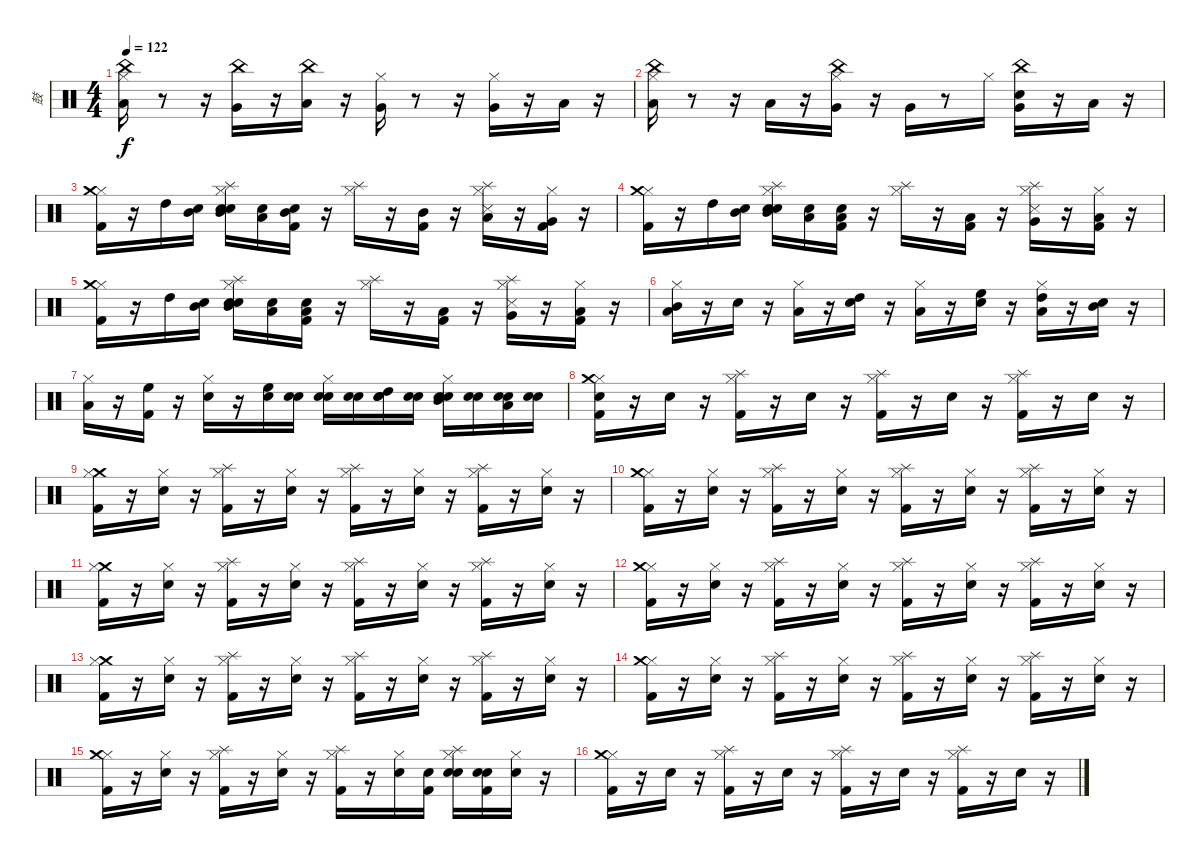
\track ("鼓" "鼓") {instrument percussion}
\staff {score}
\articulation defaults
\ts (4 4)
\tempo 122
\clef neutral
\ks c
("Low Tom (hit)" "Hi-Hat (closed)" "China (hit)").16{dy f} r.8 r.16 ("China (hit)" "Very Low Tom (hit)").16 r.16 ("Low Floor Tom (hit)" "China (hit)").16 r.16 ("Hi-Hat (closed)" "Very Low Tom (hit)").16 r.8 r.16 ("Very Low Tom (hit)" "Hi-Hat (closed)").16 r.16 "Low Floor Tom (hit)".16 r.16 |
("Low Tom (hit)" "China (hit)" "Hi-Hat (closed)").16 r.8 r.16 "Low Tom (hit)".16 r.16 ("Hi-Hat (closed)" "Very Low Tom (hit)" "China (hit)").16 r.16 "Very Low Tom (hit)".16 r.8 "Hi-Hat (closed)".16 ("Snare (hit)" "Very Low Tom (hit)" "China (hit)").16 r.16 "Low Floor Tom (hit)".16 r.16 |
("Kick (hit) 2" "Hi-Hat (closed)" "Crash medium (hit)").16 r.16 "High Tom (hit)".16 ("Snare (hit)" "Mid Tom (hit)").16 ("Snare (hit)" "Splash (hit)" "Snare (hit) 2" "Hi-Hat (closed)" "Mid Tom (hit)").16 ("Snare (hit)" "Low Tom (hit)").16 ("Snare (hit)" "Kick (hit) 2" "Mid Tom (hit)").16 r.16 ("Hi-Hat (closed)" "Splash (hit)").16 r.16 ("Kick (hit) 2" "Mid Tom (hit)").16 r.16 ("Hi-Hat (closed)" "Low Tom (hit)" "Snare (side stick) 3" "Splash (hit)").16 r.16 ("Kick (hit) 2" "Very Low Tom (hit)" "Hi-Hat (closed)").16 r.16 |
("Hi-Hat (closed)" "Kick (hit) 2" "Crash medium (hit)").16 r.16 "High Tom (hit)".16 ("Snare (hit)" "Mid Tom (hit)").16 ("Snare (hit)" "Snare (hit) 2" "Hi-Hat (closed)" "Mid Tom (hit)" "Splash (hit)").16 ("Snare (hit)" "Low Tom (hit)").16 ("Snare (hit)" "Low Tom (hit)" "Kick (hit) 2").16 r.16 ("Hi-Hat (closed)" "Splash (hit)").16 r.16 ("Kick (hit) 2" "Low Tom (hit)").16 r.16 ("Hi-Hat (closed)" "Very Low Tom (hit)" "Snare (side stick) 3" "Splash (hit)").16 r.16 ("Kick (hit) 2" "Low Floor Tom (hit)" "Hi-Hat (closed)").16 r.16 |
("Hi-Hat (closed)" "Kick (hit) 2" "Crash medium (hit)").16 r.16 "High Tom (hit)".16 ("Snare (hit)" "Mid Tom (hit)").16 ("Snare (hit)" "Snare (hit) 2" "Hi-Hat (closed)" "Mid Tom (hit)" "Splash (hit)").16 ("Snare (hit)" "Low Tom (hit)").16 ("Snare (hit)" "Low Tom (hit)" "Kick (hit) 2").16 r.16 ("Hi-Hat (closed)" "Splash (hit)").16 r.16 ("Kick (hit) 2" "Low Tom (hit)").16 r.16 ("Hi-Hat (closed)" "Very Low Tom (hit)" "Snare (side stick) 3" "Splash (hit)").16 r.16 ("Kick (hit) 2" "Low Floor Tom (hit)" "Hi-Hat (closed)").16 r.16 |
("Low Floor Tom (hit)" "Hi-Hat (closed)" "Mid Tom (hit)").16 r.16 "Snare (hit) 2".16 r.16 ("Hi-Hat (closed)" "Low Floor Tom (hit)").16 r.16 ("Snare (hit) 2" "High Tom (hit)").16 r.16 ("Hi-Hat (closed)" "Low Floor Tom (hit)").16 r.16 ("Snare (hit) 2" "High Floor Tom (hit)").16 r.16 ("High Tom (hit)" "Low Floor Tom (hit)" "Hi-Hat (closed)").16 r.16 ("Mid Tom (hit)" "Snare (hit) 2").16 r.16 |
("Hi-Hat (closed)" "Low Floor Tom (hit)").16 r.16 ("Kick (hit) 2" "High Floor Tom (hit)").16 r.16 ("Hi-Hat (closed)" "Snare (hit) 2").16 r.16 ("High Floor Tom (hit)" "Snare (hit) 2").16 ("Snare (hit)" "Snare (hit) 2").16 ("Snare (hit)" "Hi-Hat (closed)" "Snare (hit) 2").16 ("Snare (hit)" "Snare (hit) 2").16 ("Snare (hit)" "High Tom (hit)" "Snare (hit) 2").16 ("Snare (hit)" "Snare (hit) 2").16 ("Snare (hit)" "Hi-Hat (closed)" "Snare (hit) 2" "Mid Tom (hit)").16 ("Snare (hit)" "Snare (hit) 2").16 ("Snare (hit)" "Snare (hit) 2" "Low Tom (hit)").16 ("Snare (hit)" "Snare (hit) 2").16 |
("Snare (hit)" "Kick (hit) 2" "Hi-Hat (closed)" "Crash medium (hit)").16 r.16 "Snare (hit) 2".16 r.16 ("Kick (hit) 2" "Hi-Hat (closed)" "Splash (hit)").16 r.16 "Snare (hit) 2".16 r.16 ("Kick (hit) 2" "Splash (hit)" "Hi-Hat (closed)").16 r.16 "Snare (hit) 2".16 r.16 ("Kick (hit) 2" "Hi-Hat (closed)" "Splash (hit)").16 r.16 "Snare (hit) 2".16 r.16 |
("Crash medium (hit)" "Kick (hit) 2" "Hi-Hat (closed)").16 r.16 ("Snare (hit) 2" "Hi-Hat (closed)").16 r.16 ("Kick (hit) 2" "Hi-Hat (closed)" "Splash (hit)").16 r.16 ("Snare (hit) 2" "Hi-Hat (closed)").16 r.16 ("Kick (hit) 2" "Hi-Hat (closed)" "Splash (hit)").16 r.16 ("Snare (hit) 2" "Hi-Hat (closed)").16 r.16 ("Kick (hit) 2" "Hi-Hat (closed)" "Splash (hit)").16 r.16 ("Snare (hit) 2" "Hi-Hat (closed)").16 r.16 |
("Kick (hit) 2" "Hi-Hat (closed)" "Crash medium (hit)").16 r.16 ("Snare (hit) 2" "Hi-Hat (closed)").16 r.16 ("Kick (hit) 2" "Hi-Hat (closed)" "Splash (hit)").16 r.16 ("Snare (hit) 2" "Hi-Hat (closed)").16 r.16 ("Kick (hit) 2" "Hi-Hat (closed)" "Splash (hit)").16 r.16 ("Snare (hit) 2" "Hi-Hat (closed)").16 r.16 ("Kick (hit) 2" "Splash (hit)" "Hi-Hat (closed)").16 r.16 ("Snare (hit) 2" "Hi-Hat (closed)").16 r.16 |
("Kick (hit) 2" "Crash medium (hit)" "Hi-Hat (closed)").16 r.16 ("Snare (hit) 2" "Hi-Hat (closed)").16 r.16 ("Kick (hit) 2" "Hi-Hat (closed)" "Splash (hit)").16 r.16 ("Snare (hit) 2" "Hi-Hat (closed)").16 r.16 ("Kick (hit) 2" "Hi-Hat (closed)" "Splash (hit)").16 r.16 ("Snare (hit) 2" "Hi-Hat (closed)").16 r.16 ("Kick (hit) 2" "Hi-Hat (closed)" "Splash (hit)").16 r.16 ("Hi-Hat (closed)" "Snare (hit) 2").16 r.16 |
("Kick (hit) 2" "Hi-Hat (closed)" "Crash medium (hit)").16 r.16 ("Snare (hit) 2" "Hi-Hat (closed)").16 r.16 ("Kick (hit) 2" "Hi-Hat (closed)" "Splash (hit)").16 r.16 ("Snare (hit) 2" "Hi-Hat (closed)").16 r.16 ("Kick (hit) 2" "Hi-Hat (closed)" "Splash (hit)").16 r.16 ("Snare (hit) 2" "Hi-Hat (closed)").16 r.16 ("Kick (hit) 2" "Splash (hit)" "Hi-Hat (closed)").16 r.16 ("Snare (hit) 2" "Hi-Hat (closed)").16 r.16 |
("Kick (hit) 2" "Crash medium (hit)" "Hi-Hat (closed)").16 r.16 ("Snare (hit) 2" "Hi-Hat (closed)").16 r.16 ("Kick (hit) 2" "Splash (hit)" "Hi-Hat (closed)").16 r.16 ("Snare (hit) 2" "Hi-Hat (closed)").16 r.16 ("Hi-Hat (closed)" "Kick (hit) 2" "Splash (hit)").16 r.16 ("Snare (hit) 2" "Hi-Hat (closed)").16 r.16 ("Splash (hit)" "Kick (hit) 2" "Hi-Hat (closed)").16 r.16 ("Snare (hit) 2" "Hi-Hat (closed)").16 r.16 |
("Kick (hit) 2" "Hi-Hat (closed)" "Crash medium (hit)").16 r.16 ("Snare (hit) 2" "Hi-Hat (closed)").16 r.16 ("Splash (hit)" "Kick (hit) 2" "Hi-Hat (closed)").16 r.16 ("Snare (hit) 2" "Hi-Hat (closed)").16 r.16 ("Kick (hit) 2" "Hi-Hat (closed)" "Splash (hit)").16 r.16 ("Snare (hit) 2" "Hi-Hat (closed)").16 r.16 ("Hi-Hat (closed)" "Splash (hit)" "Kick (hit) 2").16 r.16 ("Hi-Hat (closed)" "Snare (hit) 2").16 r.16 |
("Kick (hit) 2" "Hi-Hat (closed)" "Crash medium (hit)").16 r.16 ("Hi-Hat (closed)" "Snare (hit) 2").16 r.16 ("Splash (hit)" "Hi-Hat (closed)" "Kick (hit) 2").16 r.16 ("Snare (hit) 2" "Hi-Hat (closed)").16 r.16 ("Hi-Hat (closed)" "Kick (hit) 2" "Splash (hit)").16 r.16 ("Snare (hit) 2" "Hi-Hat (closed)").16 ("Snare (hit)" "Kick (hit) 2").16 ("Snare (hit)" "Splash (hit)" "Hi-Hat (closed)" "Snare (hit) 2").16 ("Snare (hit)" "Kick (hit) 2" "Snare (hit) 2").16 ("Snare (hit)" "Hi-Hat (closed)").16 r.16 |
("Kick (hit) 2" "Hi-Hat (closed)" "Crash medium (hit)").16 r.16 "Snare (hit) 2".16 r.16 ("Kick (hit) 2" "Hi-Hat (closed)" "Splash (hit)").16 r.16 "Snare (hit) 2".16 r.16 ("Kick (hit) 2" "Splash (hit)" "Hi-Hat (closed)").16 r.16 "Snare (hit) 2".16 r.16 ("Kick (hit) 2" "Hi-Hat (closed)" "Splash (hit)").16 r.16 "Snare (hit) 2".16 r.16
